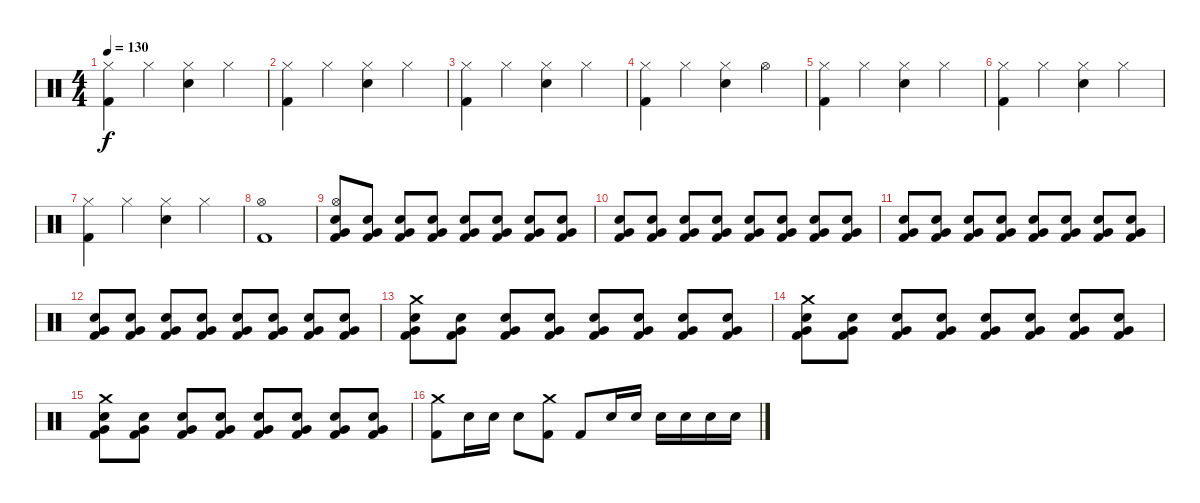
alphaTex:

\track "" {instrument percussion}
\staff {score}
\articulation defaults
\ts (4 4)
\tempo 130
\clef neutral
\ks c
("Hi-Hat (closed)" "Kick (hit) 2").4{dy f} "Hi-Hat (closed)".4 ("Hi-Hat (closed)" "Electric Snare (hit)").4 "Hi-Hat (closed)".4 |
("Hi-Hat (closed)" "Kick (hit) 2").4 "Hi-Hat (closed)".4 ("Hi-Hat (closed)" "Electric Snare (hit)").4 "Hi-Hat (closed)".4 |
("Hi-Hat (closed)" "Kick (hit) 2").4 "Hi-Hat (closed)".4 ("Hi-Hat (closed)" "Electric Snare (hit)").4 "Hi-Hat (closed)".4 |
("Hi-Hat (closed)" "Kick (hit) 2").4 "Hi-Hat (closed)".4 ("Hi-Hat (closed)" "Electric Snare (hit)").4 "Hi-Hat (open)".4 |
("Hi-Hat (closed)" "Kick (hit) 2").4 "Hi-Hat (closed)".4 ("Hi-Hat (closed)" "Electric Snare (hit)").4 "Hi-Hat (closed)".4 |
("Hi-Hat (closed)" "Kick (hit) 2").4 "Hi-Hat (closed)".4 ("Hi-Hat (closed)" "Electric Snare (hit)").4 "Hi-Hat (closed)".4 |
("Hi-Hat (closed)" "Kick (hit) 2").4 "Hi-Hat (closed)".4 ("Hi-Hat (closed)" "Electric Snare (hit)").4 "Hi-Hat (closed)".4 |
("Hi-Hat (open)" "Kick (hit) 2").1 |
("Hi-Hat (open)" "Snare (hit) 2" "Very Low Tom (hit)" "Kick (hit) 2").8{volume 6} ("Snare (hit) 2" "Very Low Tom (hit)" "Kick (hit) 2").8{volume 13} ("Snare (hit) 2" "Very Low Tom (hit)" "Kick (hit) 2").8 ("Snare (hit) 2" "Very Low Tom (hit)" "Kick (hit) 2").8 ("Snare (hit) 2" "Very Low Tom (hit)" "Kick (hit) 2").8 ("Snare (hit) 2" "Very Low Tom (hit)" "Kick (hit) 2").8 ("Snare (hit) 2" "Very Low Tom (hit)" "Kick (hit) 2").8 ("Snare (hit) 2" "Very Low Tom (hit)" "Kick (hit) 2").8 |
("Snare (hit) 2" "Very Low Tom (hit)" "Kick (hit) 2").8 ("Snare (hit) 2" "Very Low Tom (hit)" "Kick (hit) 2").8 ("Snare (hit) 2" "Very Low Tom (hit)" "Kick (hit) 2").8 ("Snare (hit) 2" "Very Low Tom (hit)" "Kick (hit) 2").8 ("Snare (hit) 2" "Very Low Tom (hit)" "Kick (hit) 2").8 ("Snare (hit) 2" "Very Low Tom (hit)" "Kick (hit) 2").8 ("Snare (hit) 2" "Very Low Tom (hit)" "Kick (hit) 2").8 ("Snare (hit) 2" "Very Low Tom (hit)" "Kick (hit) 2").8 |
("Snare (hit) 2" "Very Low Tom (hit)" "Kick (hit) 2").8 ("Snare (hit) 2" "Very Low Tom (hit)" "Kick (hit) 2").8 ("Snare (hit) 2" "Very Low Tom (hit)" "Kick (hit) 2").8 ("Snare (hit) 2" "Very Low Tom (hit)" "Kick (hit) 2").8 ("Snare (hit) 2" "Very Low Tom (hit)" "Kick (hit) 2").8 ("Snare (hit) 2" "Very Low Tom (hit)" "Kick (hit) 2").8 ("Snare (hit) 2" "Very Low Tom (hit)" "Kick (hit) 2").8 ("Snare (hit) 2" "Very Low Tom (hit)" "Kick (hit) 2").8 |
("Snare (hit) 2" "Very Low Tom (hit)" "Kick (hit) 2").8 ("Snare (hit) 2" "Very Low Tom (hit)" "Kick (hit) 2").8 ("Snare (hit) 2" "Very Low Tom (hit)" "Kick (hit) 2").8 ("Snare (hit) 2" "Very Low Tom (hit)" "Kick (hit) 2").8 ("Snare (hit) 2" "Very Low Tom (hit)" "Kick (hit) 2").8 ("Snare (hit) 2" "Very Low Tom (hit)" "Kick (hit) 2").8 ("Snare (hit) 2" "Very Low Tom (hit)" "Kick (hit) 2").8 ("Snare (hit) 2" "Very Low Tom (hit)" "Kick (hit) 2").8 |
("Crash medium (hit)" "Snare (hit) 2" "Very Low Tom (hit)" "Kick (hit) 2").8 ("Snare (hit) 2" "Very Low Tom (hit)" "Kick (hit) 2").8 ("Snare (hit) 2" "Very Low Tom (hit)" "Kick (hit) 2").8 ("Snare (hit) 2" "Very Low Tom (hit)" "Kick (hit) 2").8 ("Snare (hit) 2" "Very Low Tom (hit)" "Kick (hit) 2").8 ("Snare (hit) 2" "Very Low Tom (hit)" "Kick (hit) 2").8 ("Snare (hit) 2" "Very Low Tom (hit)" "Kick (hit) 2").8 ("Snare (hit) 2" "Very Low Tom (hit)" "Kick (hit) 2").8 |
("Crash medium (hit)" "Snare (hit) 2" "Very Low Tom (hit)" "Kick (hit) 2").8 ("Snare (hit) 2" "Very Low Tom (hit)" "Kick (hit) 2").8 ("Snare (hit) 2" "Very Low Tom (hit)" "Kick (hit) 2").8 ("Snare (hit) 2" "Very Low Tom (hit)" "Kick (hit) 2").8 ("Snare (hit) 2" "Very Low Tom (hit)" "Kick (hit) 2").8 ("Snare (hit) 2" "Very Low Tom (hit)" "Kick (hit) 2").8 ("Snare (hit) 2" "Very Low Tom (hit)" "Kick (hit) 2").8 ("Snare (hit) 2" "Very Low Tom (hit)" "Kick (hit) 2").8 |
("Crash medium (hit)" "Snare (hit) 2" "Very Low Tom (hit)" "Kick (hit) 2").8 ("Snare (hit) 2" "Very Low Tom (hit)" "Kick (hit) 2").8 ("Snare (hit) 2" "Very Low Tom (hit)" "Kick (hit) 2").8 ("Snare (hit) 2" "Very Low Tom (hit)" "Kick (hit) 2").8 ("Snare (hit) 2" "Very Low Tom (hit)" "Kick (hit) 2").8 ("Snare (hit) 2" "Very Low Tom (hit)" "Kick (hit) 2").8 ("Snare (hit) 2" "Very Low Tom (hit)" "Kick (hit) 2").8 ("Snare (hit) 2" "Very Low Tom (hit)" "Kick (hit) 2").8 |
("Crash medium (hit)" "Kick (hit) 2").8 "Electric Snare (hit)".16 "Electric Snare (hit)".16 "Electric Snare (hit)".8 ("Crash medium (hit)" "Kick (hit) 2").8 "Kick (hit) 2".8 "Electric Snare (hit)".16 "Electric Snare (hit)".16 "Electric Snare (hit)".16 "Electric Snare (hit)".16 "Electric Snare (hit)".16 "Electric Snare (hit)".16
